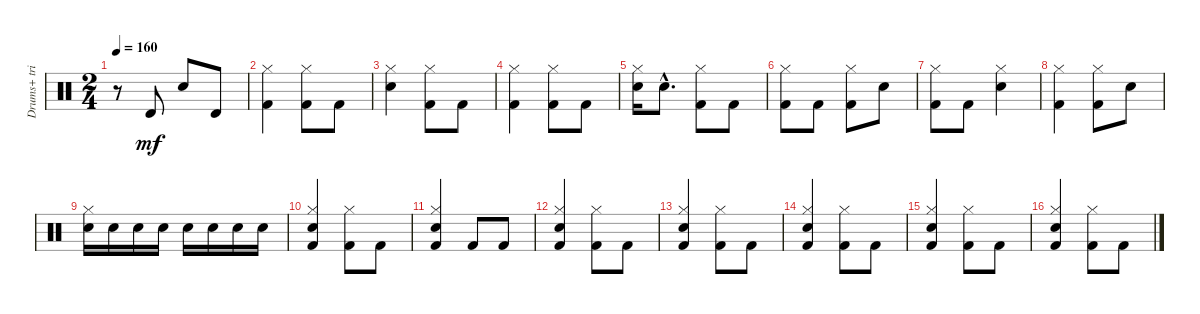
\track ("Drums+ triangle" "Drums+ tri") {instrument percussion}
\staff {score}
\articulation defaults
\ts (2 4)
\tempo 160
\clef neutral
\ks c
r.8{dy mf} "Timbale high (hit)".8 "Snare (hit) 2".8 "Timbale high (hit)".8 |
("Hi-Hat (closed)" "Kick (hit) 2").4 ("Kick (hit) 2" "Hi-Hat (closed)").8 "Kick (hit) 2".8 |
("Hi-Hat (closed)" "Snare (hit) 2").4 ("Kick (hit) 2" "Hi-Hat (closed)").8 "Kick (hit) 2".8 |
("Hi-Hat (closed)" "Kick (hit) 2").4 ("Kick (hit) 2" "Hi-Hat (closed)").8 "Kick (hit) 2".8 |
("Hi-Hat (closed)" "Snare (hit) 2").16 "Snare (hit) 2"{hac}.8{d} ("Hi-Hat (closed)" "Kick (hit) 2").8 "Kick (hit) 2".8 |
("Kick (hit) 2" "Hi-Hat (closed)").8 "Kick (hit) 2".8 ("Kick (hit) 2" "Hi-Hat (closed)").8 "Snare (hit) 2".8 |
("Kick (hit) 2" "Hi-Hat (closed)").8 "Kick (hit) 2".8 ("Hi-Hat (closed)" "Snare (hit) 2").4 |
("Kick (hit) 2" "Hi-Hat (closed)").4 ("Kick (hit) 2" "Hi-Hat (closed)").8 "Snare (hit) 2".8 |
("Hi-Hat (closed)" "Snare (hit) 2").16 "Snare (hit) 2".16 "Snare (hit) 2".16 "Snare (hit) 2".16 "Snare (hit) 2".16 "Snare (hit) 2".16 "Snare (hit) 2".16 "Snare (hit) 2".16 |
("Hi-Hat (closed)" "Snare (hit) 2" "Kick (hit) 2").4 ("Kick (hit) 2" "Hi-Hat (closed)").8 "Kick (hit) 2".8 |
("Hi-Hat (closed)" "Snare (hit) 2" "Kick (hit) 2").4 "Kick (hit) 2".8 "Kick (hit) 2".8 |
("Kick (hit) 2" "Snare (hit) 2" "Hi-Hat (closed)").4 ("Kick (hit) 2" "Hi-Hat (closed)").8 "Kick (hit) 2".8 |
("Kick (hit) 2" "Snare (hit) 2" "Hi-Hat (closed)").4 ("Kick (hit) 2" "Hi-Hat (closed)").8 "Kick (hit) 2".8 |
("Kick (hit) 2" "Snare (hit) 2" "Hi-Hat (closed)").4 ("Kick (hit) 2" "Hi-Hat (closed)").8 "Kick (hit) 2".8 |
("Kick (hit) 2" "Snare (hit) 2" "Hi-Hat (closed)").4 ("Kick (hit) 2" "Hi-Hat (closed)").8 "Kick (hit) 2".8 |
("Kick (hit) 2" "Snare (hit) 2" "Hi-Hat (closed)").4 ("Kick (hit) 2" "Hi-Hat (closed)").8 "Kick (hit) 2".8
